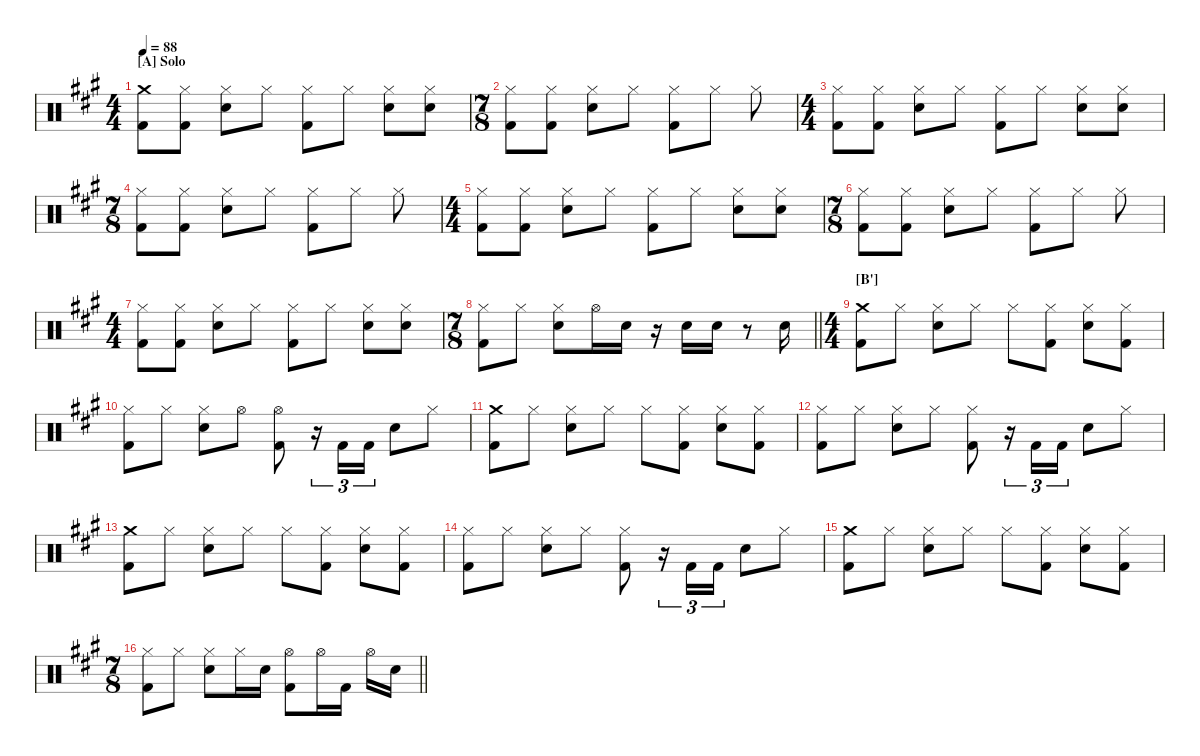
\hideDynamics
\bracketExtendMode nobrackets
\singleTrackTrackNamePolicy hidden
\multiTrackTrackNamePolicy hidden
\firstSystemTrackNameMode fullname
\firstSystemTrackNameOrientation horizontal
\otherSystemsTrackNameOrientation horizontal
\track ("Drumkit" "Drums") {defaultSystemsLayout 4 instrument percussion}
\staff {score}
\articulation defaults
\ts (4 4)
\beaming (8 2 2 2 2)
\section ("A" "Solo")
\scale
0.52809
\tempo 88
\accidentals auto
\clef neutral
\ottava regular
\simile none
\ks a
("Crash medium (hit)"{acc forcenatural} "Kick (hit) 2"{acc forcenatural}).8{dy f beam Down} ("Hi-Hat (closed)"{acc forcenatural} "Kick (hit) 2"{acc forcenatural}).8{beam Down} ("Hi-Hat (closed)"{acc forcenatural} "Snare (hit) 2"{acc forcenatural}).8{beam Down} "Hi-Hat (closed)"{acc forcenatural}.8{beam Down} ("Hi-Hat (closed)"{acc forcenatural} "Kick (hit) 2"{acc forcenatural}).8{beam Down} "Hi-Hat (closed)"{acc forcenatural}.8{beam Down} ("Hi-Hat (closed)"{acc forcenatural} "Snare (hit) 2"{acc forcenatural}).8{beam Down} ("Hi-Hat (closed)"{acc forcenatural} "Snare (hit) 2"{acc forcenatural}).8{beam Down} |
\ts (7 8)
\beaming (8 2 2 2 1)
\scale
0.47191 ("Hi-Hat (closed)"{acc forcenatural} "Kick (hit) 2"{acc forcenatural}).8{beam Down} ("Hi-Hat (closed)"{acc forcenatural} "Kick (hit) 2"{acc forcenatural}).8{beam Down} ("Hi-Hat (closed)"{acc forcenatural} "Snare (hit) 2"{acc forcenatural}).8{beam Down} "Hi-Hat (closed)"{acc forcenatural}.8{beam Down} ("Hi-Hat (closed)"{acc forcenatural} "Kick (hit) 2"{acc forcenatural}).8{beam Down} "Hi-Hat (closed)"{acc forcenatural}.8{beam Down} "Hi-Hat (closed)"{acc forcenatural}.8{beam Down} |
\ts (4 4)
\beaming (8 2 2 2 2)
\scale
0.618182 ("Hi-Hat (closed)"{acc forcenatural} "Kick (hit) 2"{acc forcenatural}).8{beam Down} ("Hi-Hat (closed)"{acc forcenatural} "Kick (hit) 2"{acc forcenatural}).8{beam Down} ("Hi-Hat (closed)"{acc forcenatural} "Snare (hit) 2"{acc forcenatural}).8{beam Down} "Hi-Hat (closed)"{acc forcenatural}.8{beam Down} ("Hi-Hat (closed)"{acc forcenatural} "Kick (hit) 2"{acc forcenatural}).8{beam Down} "Hi-Hat (closed)"{acc forcenatural}.8{beam Down} ("Hi-Hat (closed)"{acc forcenatural} "Snare (hit) 2"{acc forcenatural}).8{beam Down} ("Hi-Hat (closed)"{acc forcenatural} "Snare (hit) 2"{acc forcenatural}).8{beam Down} |
\ts (7 8)
\beaming (8 2 2 2 1)
\scale
0.381818 ("Hi-Hat (closed)"{acc forcenatural} "Kick (hit) 2"{acc forcenatural}).8{beam Down} ("Hi-Hat (closed)"{acc forcenatural} "Kick (hit) 2"{acc forcenatural}).8{beam Down} ("Hi-Hat (closed)"{acc forcenatural} "Snare (hit) 2"{acc forcenatural}).8{beam Down} "Hi-Hat (closed)"{acc forcenatural}.8{beam Down} ("Hi-Hat (closed)"{acc forcenatural} "Kick (hit) 2"{acc forcenatural}).8{beam Down} "Hi-Hat (closed)"{acc forcenatural}.8{beam Down} "Hi-Hat (closed)"{acc forcenatural}.8{beam Down} |
\ts (4 4)
\beaming (8 2 2 2 2)
\scale
0.618759 ("Hi-Hat (closed)"{acc forcenatural} "Kick (hit) 2"{acc forcenatural}).8{beam Down} ("Hi-Hat (closed)"{acc forcenatural} "Kick (hit) 2"{acc forcenatural}).8{beam Down} ("Hi-Hat (closed)"{acc forcenatural} "Snare (hit) 2"{acc forcenatural}).8{beam Down} "Hi-Hat (closed)"{acc forcenatural}.8{beam Down} ("Hi-Hat (closed)"{acc forcenatural} "Kick (hit) 2"{acc forcenatural}).8{beam Down} "Hi-Hat (closed)"{acc forcenatural}.8{beam Down} ("Hi-Hat (closed)"{acc forcenatural} "Snare (hit) 2"{acc forcenatural}).8{beam Down} ("Hi-Hat (closed)"{acc forcenatural} "Snare (hit) 2"{acc forcenatural}).8{beam Down} |
\ts (7 8)
\beaming (8 2 2 2 1)
\scale
0.381241 ("Hi-Hat (closed)"{acc forcenatural} "Kick (hit) 2"{acc forcenatural}).8{beam Down} ("Hi-Hat (closed)"{acc forcenatural} "Kick (hit) 2"{acc forcenatural}).8{beam Down} ("Hi-Hat (closed)"{acc forcenatural} "Snare (hit) 2"{acc forcenatural}).8{beam Down} "Hi-Hat (closed)"{acc forcenatural}.8{beam Down} ("Hi-Hat (closed)"{acc forcenatural} "Kick (hit) 2"{acc forcenatural}).8{beam Down} "Hi-Hat (closed)"{acc forcenatural}.8{beam Down} "Hi-Hat (closed)"{acc forcenatural}.8{beam Down} |
\ts (4 4)
\beaming (8 2 2 2 2)
\scale
0.534196 ("Hi-Hat (closed)"{acc forcenatural} "Kick (hit) 2"{acc forcenatural}).8{beam Down} ("Hi-Hat (closed)"{acc forcenatural} "Kick (hit) 2"{acc forcenatural}).8{beam Down} ("Hi-Hat (closed)"{acc forcenatural} "Snare (hit) 2"{acc forcenatural}).8{beam Down} "Hi-Hat (closed)"{acc forcenatural}.8{beam Down} ("Hi-Hat (closed)"{acc forcenatural} "Kick (hit) 2"{acc forcenatural}).8{beam Down} "Hi-Hat (closed)"{acc forcenatural}.8{beam Down} ("Hi-Hat (closed)"{acc forcenatural} "Snare (hit) 2"{acc forcenatural}).8{beam Down} ("Hi-Hat (closed)"{acc forcenatural} "Snare (hit) 2"{acc forcenatural}).8{beam Down} |
\ts (7 8)
\beaming (8 2 2 2 1)
\scale
0.465804
\barLineRight lightlight
("Hi-Hat (closed)"{acc forcenatural} "Kick (hit) 2"{acc forcenatural}).8{beam Down} "Hi-Hat (closed)"{acc forcenatural}.8{beam Down} ("Hi-Hat (closed)"{acc forcenatural} "Snare (hit) 2"{acc forcenatural}).8{beam Down} "Hi-Hat (open)"{acc forcenatural}.16{beam Down} "Snare (hit) 2"{acc forcenatural}.16{beam Down} r.16{beam Down} "Snare (hit) 2"{acc forcenatural}.16{beam Down} "Snare (hit) 2"{acc forcenatural}.16{beam Down} r.8{beam Down} "Snare (hit) 2"{acc forcenatural}.16{beam Down} |
\ts (4 4)
\beaming (8 2 2 2 2)
\section ("B'" "")
\scale
0.617391 ("Crash medium (hit)"{acc forcenatural} "Kick (hit) 2"{acc forcenatural}).8{beam Down} "Hi-Hat (closed)"{acc forcenatural}.8{beam Down} ("Hi-Hat (closed)"{acc forcenatural} "Snare (hit) 2"{acc forcenatural}).8{beam Down} "Hi-Hat (closed)"{acc forcenatural}.8{beam Down} "Hi-Hat (closed)"{acc forcenatural}.8{beam Down} ("Hi-Hat (closed)"{acc forcenatural} "Kick (hit) 2"{acc forcenatural}).8{beam Down} ("Hi-Hat (closed)"{acc forcenatural} "Snare (hit) 2"{acc forcenatural}).8{beam Down} ("Hi-Hat (closed)"{acc forcenatural} "Kick (hit) 2"{acc forcenatural}).8{beam Down} |
\scale
0.382609 ("Hi-Hat (closed)"{acc forcenatural} "Kick (hit) 2"{acc forcenatural}).8{beam Down} "Hi-Hat (closed)"{acc forcenatural}.8{beam Down} ("Hi-Hat (closed)"{acc forcenatural} "Snare (hit) 2"{acc forcenatural}).8{beam Down} "Hi-Hat (open)"{acc forcenatural}.8{beam Down} ("Hi-Hat (open)"{acc forcenatural} "Kick (hit) 2"{acc forcenatural}).8{beam Down} r.16{tu (3 2) beam Down} "Kick (hit) 2"{acc forcenatural}.16{tu (3 2) beam Up} "Kick (hit) 2"{acc forcenatural}.16{tu (3 2) beam Up} "Snare (hit) 2"{acc forcenatural}.8{beam Down} "Hi-Hat (closed)"{acc forcenatural}.8{beam Down} |
\scale
0.5 ("Crash medium (hit)"{acc forcenatural} "Kick (hit) 2"{acc forcenatural}).8{beam Down} "Hi-Hat (closed)"{acc forcenatural}.8{beam Down} ("Hi-Hat (closed)"{acc forcenatural} "Snare (hit) 2"{acc forcenatural}).8{beam Down} "Hi-Hat (closed)"{acc forcenatural}.8{beam Down} "Hi-Hat (closed)"{acc forcenatural}.8{beam Down} ("Hi-Hat (closed)"{acc forcenatural} "Kick (hit) 2"{acc forcenatural}).8{beam Down} ("Hi-Hat (closed)"{acc forcenatural} "Snare (hit) 2"{acc forcenatural}).8{beam Down} ("Hi-Hat (closed)"{acc forcenatural} "Kick (hit) 2"{acc forcenatural}).8{beam Down} |
\scale
0.5 ("Hi-Hat (closed)"{acc forcenatural} "Kick (hit) 2"{acc forcenatural}).8{beam Down} "Hi-Hat (closed)"{acc forcenatural}.8{beam Down} ("Hi-Hat (closed)"{acc forcenatural} "Snare (hit) 2"{acc forcenatural}).8{beam Down} "Hi-Hat (closed)"{acc forcenatural}.8{beam Down} ("Hi-Hat (closed)"{acc forcenatural} "Kick (hit) 2"{acc forcenatural}).8{beam Down} r.16{tu (3 2) beam Down} "Kick (hit) 2"{acc forcenatural}.16{tu (3 2) beam Up} "Kick (hit) 2"{acc forcenatural}.16{tu (3 2) beam Up} "Snare (hit) 2"{acc forcenatural}.8{beam Down} "Hi-Hat (closed)"{acc forcenatural}.8{beam Down} |
\scale
0.5 ("Crash medium (hit)"{acc forcenatural} "Kick (hit) 2"{acc forcenatural}).8{beam Down} "Hi-Hat (closed)"{acc forcenatural}.8{beam Down} ("Hi-Hat (closed)"{acc forcenatural} "Snare (hit) 2"{acc forcenatural}).8{beam Down} "Hi-Hat (closed)"{acc forcenatural}.8{beam Down} "Hi-Hat (closed)"{acc forcenatural}.8{beam Down} ("Hi-Hat (closed)"{acc forcenatural} "Kick (hit) 2"{acc forcenatural}).8{beam Down} ("Hi-Hat (closed)"{acc forcenatural} "Snare (hit) 2"{acc forcenatural}).8{beam Down} ("Hi-Hat (closed)"{acc forcenatural} "Kick (hit) 2"{acc forcenatural}).8{beam Down} |
\scale
0.5 ("Hi-Hat (closed)"{acc forcenatural} "Kick (hit) 2"{acc forcenatural}).8{beam Down} "Hi-Hat (closed)"{acc forcenatural}.8{beam Down} ("Hi-Hat (closed)"{acc forcenatural} "Snare (hit) 2"{acc forcenatural}).8{beam Down} "Hi-Hat (closed)"{acc forcenatural}.8{beam Down} ("Hi-Hat (closed)"{acc forcenatural} "Kick (hit) 2"{acc forcenatural}).8{beam Down} r.16{tu (3 2) beam Down} "Kick (hit) 2"{acc forcenatural}.16{tu (3 2) beam Up} "Kick (hit) 2"{acc forcenatural}.16{tu (3 2) beam Up} "Snare (hit) 2"{acc forcenatural}.8{beam Down} "Hi-Hat (closed)"{acc forcenatural}.8{beam Down} |
\scale
0.511628 ("Crash medium (hit)"{acc forcenatural} "Kick (hit) 2"{acc forcenatural}).8{beam Down} "Hi-Hat (closed)"{acc forcenatural}.8{beam Down} ("Hi-Hat (closed)"{acc forcenatural} "Snare (hit) 2"{acc forcenatural}).8{beam Down} "Hi-Hat (closed)"{acc forcenatural}.8{beam Down} "Hi-Hat (closed)"{acc forcenatural}.8{beam Down} ("Hi-Hat (closed)"{acc forcenatural} "Kick (hit) 2"{acc forcenatural}).8{beam Down} ("Hi-Hat (closed)"{acc forcenatural} "Snare (hit) 2"{acc forcenatural}).8{beam Down} ("Hi-Hat (closed)"{acc forcenatural} "Kick (hit) 2"{acc forcenatural}).8{beam Down} |
\ts (7 8)
\beaming (8 2 2 2 1)
\scale
0.488372
\barLineRight lightlight
("Hi-Hat (closed)"{acc forcenatural} "Kick (hit) 2"{acc forcenatural}).8{beam Down} "Hi-Hat (closed)"{acc forcenatural}.8{beam Down} ("Hi-Hat (closed)"{acc forcenatural} "Snare (hit) 2"{acc forcenatural}).8{beam Down} "Hi-Hat (closed)"{acc forcenatural}.16{beam Down} "Snare (hit) 2"{acc forcenatural}.16{beam Down} ("Hi-Hat (open)"{acc forcenatural} "Kick (hit) 2"{acc forcenatural}).8{beam Down} "Hi-Hat (open)"{acc forcenatural}.16{beam Down} "Kick (hit) 2"{acc forcenatural}.16{beam Down} "Hi-Hat (open)"{acc forcenatural}.16{beam Down} "Snare (hit) 2"{acc forcenatural}.16{beam Down}
